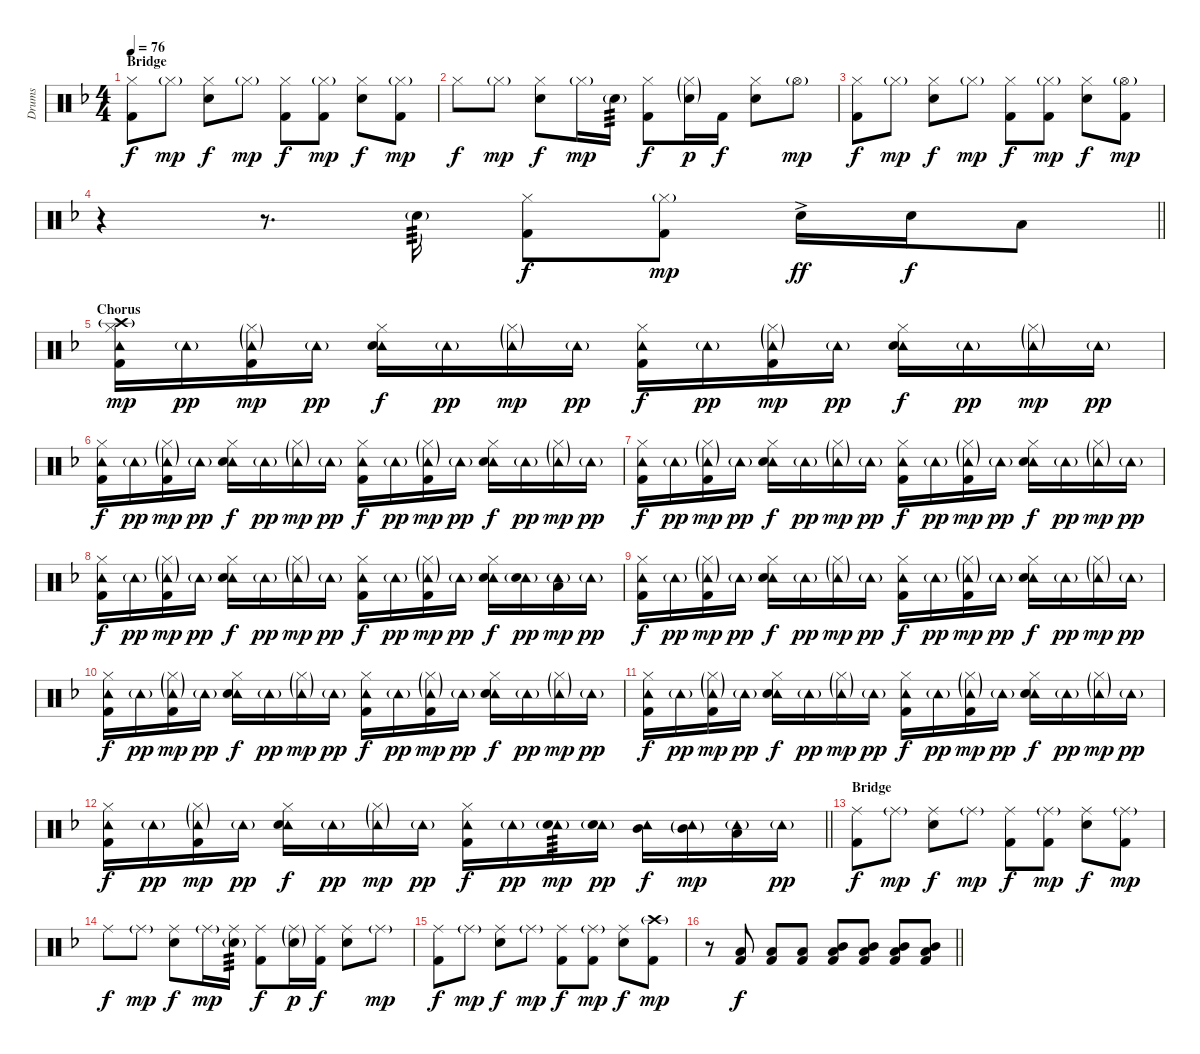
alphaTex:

\track ("Drums" "Drums") {instrument percussion}
\staff {score}
\articulation defaults
\ts (4 4)
\section ("" "Bridge")
\tempo 76
\clef neutral
\ks f
("Hi-Hat (closed)" "Kick (hit) 2").8{dy f} "Hi-Hat (closed)"{g}.8{dy mp} ("Hi-Hat (closed)" "Snare (hit) 2").8{dy f} "Hi-Hat (closed)"{g}.8{dy mp} ("Hi-Hat (closed)" "Kick (hit) 2").8{dy f} ("Hi-Hat (closed)"{g} "Kick (hit) 2").8{dy mp} ("Hi-Hat (closed)" "Snare (hit) 2").8{dy f} ("Hi-Hat (closed)"{g} "Kick (hit) 2").8{dy mp} |
"Hi-Hat (closed)".8{dy f} "Hi-Hat (closed)"{g}.8{dy mp} ("Hi-Hat (closed)" "Snare (hit) 2").8{dy f} "Hi-Hat (closed)"{g}.16{dy mp} "Snare (hit) 2"{g}.16{tp 3} ("Hi-Hat (closed)" "Kick (hit) 2").8{dy f} ("Hi-Hat (closed)"{g} "Snare (hit) 2"{g}).16{dy p} "Kick (hit) 2".16{dy f} ("Hi-Hat (closed)" "Snare (hit) 2").8 "Hi-Hat (open)"{g}.8{dy mp} |
("Hi-Hat (closed)" "Kick (hit) 2").8{dy f} "Hi-Hat (closed)"{g}.8{dy mp} ("Hi-Hat (closed)" "Snare (hit) 2").8{dy f} "Hi-Hat (closed)"{g}.8{dy mp} ("Hi-Hat (closed)" "Kick (hit) 2").8{dy f} ("Hi-Hat (closed)"{g} "Kick (hit) 2").8{dy mp} ("Hi-Hat (closed)" "Snare (hit) 2").8{dy f} ("Hi-Hat (open)"{g} "Kick (hit) 2").8{dy mp} |
\barLineRight lightlight
r.4 r.8{d} "Snare (hit) 2"{g}.16{tp 3} ("Hi-Hat (closed)" "Kick (hit) 2").8{dy f} ("Hi-Hat (closed)"{g} "Kick (hit) 2").8{dy mp} "Snare (hit) 2"{ac}.16{dy ff} "Snare (hit) 2".16{dy f} "Low Tom (hit)".8 |
\section ("" "Chorus")
("Hi-Hat (closed)" "Tambourine (hit)" "Crash high (hit)"{g} "Kick (hit) 2").16{dy mp} "Tambourine (hit)"{g}.16{dy pp} ("Hi-Hat (closed)"{g} "Tambourine (hit)"{g} "Kick (hit) 2").16{dy mp} "Tambourine (hit)"{g}.16{dy pp} ("Hi-Hat (closed)" "Tambourine (hit)" "Snare (hit) 2").16{dy f} "Tambourine (hit)"{g}.16{dy pp} ("Hi-Hat (closed)"{g} "Tambourine (hit)"{g}).16{dy mp} "Tambourine (hit)"{g}.16{dy pp} ("Hi-Hat (closed)" "Tambourine (hit)" "Kick (hit) 2").16{dy f} "Tambourine (hit)"{g}.16{dy pp} ("Hi-Hat (closed)"{g} "Tambourine (hit)"{g} "Kick (hit) 2").16{dy mp} "Tambourine (hit)"{g}.16{dy pp} ("Hi-Hat (closed)" "Tambourine (hit)" "Snare (hit) 2").16{dy f} "Tambourine (hit)"{g}.16{dy pp} ("Hi-Hat (closed)"{g} "Tambourine (hit)"{g}).16{dy mp} "Tambourine (hit)"{g}.16{dy pp} |
("Hi-Hat (closed)" "Tambourine (hit)" "Kick (hit) 2").16{dy f} "Tambourine (hit)"{g}.16{dy pp} ("Hi-Hat (closed)"{g} "Tambourine (hit)"{g} "Kick (hit) 2").16{dy mp} "Tambourine (hit)"{g}.16{dy pp} ("Hi-Hat (closed)" "Tambourine (hit)" "Snare (hit) 2").16{dy f} "Tambourine (hit)"{g}.16{dy pp} ("Hi-Hat (closed)"{g} "Tambourine (hit)"{g}).16{dy mp} "Tambourine (hit)"{g}.16{dy pp} ("Hi-Hat (closed)" "Tambourine (hit)" "Kick (hit) 2").16{dy f} "Tambourine (hit)"{g}.16{dy pp} ("Hi-Hat (closed)"{g} "Tambourine (hit)"{g} "Kick (hit) 2").16{dy mp} "Tambourine (hit)"{g}.16{dy pp} ("Hi-Hat (closed)" "Tambourine (hit)" "Snare (hit) 2").16{dy f} "Tambourine (hit)"{g}.16{dy pp} ("Hi-Hat (closed)"{g} "Tambourine (hit)"{g}).16{dy mp} "Tambourine (hit)"{g}.16{dy pp} |
("Hi-Hat (closed)" "Tambourine (hit)" "Kick (hit) 2").16{dy f} "Tambourine (hit)"{g}.16{dy pp} ("Hi-Hat (closed)"{g} "Tambourine (hit)"{g} "Kick (hit) 2").16{dy mp} "Tambourine (hit)"{g}.16{dy pp} ("Hi-Hat (closed)" "Tambourine (hit)" "Snare (hit) 2").16{dy f} "Tambourine (hit)"{g}.16{dy pp} ("Hi-Hat (closed)"{g} "Tambourine (hit)"{g}).16{dy mp} "Tambourine (hit)"{g}.16{dy pp} ("Hi-Hat (closed)" "Tambourine (hit)" "Kick (hit) 2").16{dy f} "Tambourine (hit)"{g}.16{dy pp} ("Hi-Hat (closed)"{g} "Tambourine (hit)"{g} "Kick (hit) 2").16{dy mp} "Tambourine (hit)"{g}.16{dy pp} ("Hi-Hat (closed)" "Tambourine (hit)" "Snare (hit) 2").16{dy f} "Tambourine (hit)"{g}.16{dy pp} ("Hi-Hat (closed)"{g} "Tambourine (hit)"{g}).16{dy mp} "Tambourine (hit)"{g}.16{dy pp} |
("Hi-Hat (closed)" "Tambourine (hit)" "Kick (hit) 2").16{dy f} "Tambourine (hit)"{g}.16{dy pp} ("Hi-Hat (closed)"{g} "Tambourine (hit)"{g} "Kick (hit) 2").16{dy mp} "Tambourine (hit)"{g}.16{dy pp} ("Hi-Hat (closed)" "Tambourine (hit)" "Snare (hit) 2").16{dy f} "Tambourine (hit)"{g}.16{dy pp} ("Hi-Hat (closed)"{g} "Tambourine (hit)"{g}).16{dy mp} "Tambourine (hit)"{g}.16{dy pp} ("Hi-Hat (closed)" "Tambourine (hit)" "Kick (hit) 2").16{dy f} "Tambourine (hit)"{g}.16{dy pp} ("Hi-Hat (closed)"{g} "Tambourine (hit)"{g} "Kick (hit) 2").16{dy mp} "Tambourine (hit)"{g}.16{dy pp} ("Hi-Hat (closed)" "Tambourine (hit)" "Snare (hit) 2").16{dy f} ("Tambourine (hit)"{g} "Snare (hit) 2").16{dy pp} ("Tambourine (hit)"{g} "Low Tom (hit)").16{dy mp} "Tambourine (hit)"{g}.16{dy pp} |
("Hi-Hat (closed)" "Tambourine (hit)" "Kick (hit) 2").16{dy f} "Tambourine (hit)"{g}.16{dy pp} ("Hi-Hat (closed)"{g} "Tambourine (hit)"{g} "Kick (hit) 2").16{dy mp} "Tambourine (hit)"{g}.16{dy pp} ("Hi-Hat (closed)" "Tambourine (hit)" "Snare (hit) 2").16{dy f} "Tambourine (hit)"{g}.16{dy pp} ("Hi-Hat (closed)"{g} "Tambourine (hit)"{g}).16{dy mp} "Tambourine (hit)"{g}.16{dy pp} ("Hi-Hat (closed)" "Tambourine (hit)" "Kick (hit) 2").16{dy f} "Tambourine (hit)"{g}.16{dy pp} ("Hi-Hat (closed)"{g} "Tambourine (hit)"{g} "Kick (hit) 2").16{dy mp} "Tambourine (hit)"{g}.16{dy pp} ("Hi-Hat (closed)" "Tambourine (hit)" "Snare (hit) 2").16{dy f} "Tambourine (hit)"{g}.16{dy pp} ("Hi-Hat (closed)"{g} "Tambourine (hit)"{g}).16{dy mp} "Tambourine (hit)"{g}.16{dy pp} |
("Hi-Hat (closed)" "Tambourine (hit)" "Kick (hit) 2").16{dy f} "Tambourine (hit)"{g}.16{dy pp} ("Hi-Hat (closed)"{g} "Tambourine (hit)"{g} "Kick (hit) 2").16{dy mp} "Tambourine (hit)"{g}.16{dy pp} ("Hi-Hat (closed)" "Tambourine (hit)" "Snare (hit) 2").16{dy f} "Tambourine (hit)"{g}.16{dy pp} ("Hi-Hat (closed)"{g} "Tambourine (hit)"{g}).16{dy mp} "Tambourine (hit)"{g}.16{dy pp} ("Hi-Hat (closed)" "Tambourine (hit)" "Kick (hit) 2").16{dy f} "Tambourine (hit)"{g}.16{dy pp} ("Hi-Hat (closed)"{g} "Tambourine (hit)"{g} "Kick (hit) 2").16{dy mp} "Tambourine (hit)"{g}.16{dy pp} ("Hi-Hat (closed)" "Tambourine (hit)" "Snare (hit) 2").16{dy f} "Tambourine (hit)"{g}.16{dy pp} ("Hi-Hat (closed)"{g} "Tambourine (hit)"{g}).16{dy mp} "Tambourine (hit)"{g}.16{dy pp} |
("Hi-Hat (closed)" "Tambourine (hit)" "Kick (hit) 2").16{dy f} "Tambourine (hit)"{g}.16{dy pp} ("Hi-Hat (closed)"{g} "Tambourine (hit)"{g} "Kick (hit) 2").16{dy mp} "Tambourine (hit)"{g}.16{dy pp} ("Hi-Hat (closed)" "Tambourine (hit)" "Snare (hit) 2").16{dy f} "Tambourine (hit)"{g}.16{dy pp} ("Hi-Hat (closed)"{g} "Tambourine (hit)"{g}).16{dy mp} "Tambourine (hit)"{g}.16{dy pp} ("Hi-Hat (closed)" "Tambourine (hit)" "Kick (hit) 2").16{dy f} "Tambourine (hit)"{g}.16{dy pp} ("Hi-Hat (closed)"{g} "Tambourine (hit)"{g} "Kick (hit) 2").16{dy mp} "Tambourine (hit)"{g}.16{dy pp} ("Hi-Hat (closed)" "Tambourine (hit)" "Snare (hit) 2").16{dy f} "Tambourine (hit)"{g}.16{dy pp} ("Hi-Hat (closed)"{g} "Tambourine (hit)"{g}).16{dy mp} "Tambourine (hit)"{g}.16{dy pp} |
\barLineRight lightlight
("Hi-Hat (closed)" "Tambourine (hit)" "Kick (hit) 2").16{dy f} "Tambourine (hit)"{g}.16{dy pp} ("Hi-Hat (closed)"{g} "Tambourine (hit)"{g} "Kick (hit) 2").16{dy mp} "Tambourine (hit)"{g}.16{dy pp} ("Hi-Hat (closed)" "Tambourine (hit)" "Snare (hit) 2").16{dy f} "Tambourine (hit)"{g}.16{dy pp} ("Hi-Hat (closed)"{g} "Tambourine (hit)"{g}).16{dy mp} "Tambourine (hit)"{g}.16{dy pp} ("Hi-Hat (closed)" "Tambourine (hit)" "Kick (hit) 2").16{dy f} "Tambourine (hit)"{g}.16{dy pp} ("Tambourine (hit)"{g} "Snare (hit) 2"{g}).16{tp 3 dy mp} ("Tambourine (hit)"{g} "Snare (hit) 2").16{dy pp} ("Tambourine (hit)" "Mid Tom (hit)").16{dy f} ("Tambourine (hit)"{g} "Mid Tom (hit)"{g}).16{dy mp} ("Tambourine (hit)"{g} "Low Tom (hit)").16 "Tambourine (hit)"{g}.16{dy pp} |
\section ("" "Bridge")
("Ride (middle)" "Kick (hit) 2").8{dy f} "Ride (middle)"{g}.8{dy mp} ("Ride (middle)" "Snare (hit) 2").8{dy f} "Ride (middle)"{g}.8{dy mp} ("Ride (middle)" "Kick (hit) 2").8{dy f} ("Ride (middle)"{g} "Kick (hit) 2").8{dy mp} ("Ride (middle)" "Snare (hit) 2").8{dy f} ("Ride (middle)"{g} "Kick (hit) 2").8{dy mp} |
"Ride (middle)".8{dy f} "Ride (middle)"{g}.8{dy mp} ("Ride (middle)" "Snare (hit) 2").8{dy f} "Ride (middle)"{g}.16{dy mp} ("Ride (middle)" "Snare (hit) 2"{g}).16{tp 3} ("Ride (middle)" "Kick (hit) 2").8{dy f} ("Ride (middle)"{g} "Snare (hit) 2"{g}).16{dy p} ("Ride (middle)" "Kick (hit) 2").16{dy f} ("Ride (middle)" "Snare (hit) 2").8 "Ride (middle)"{g}.8{dy mp} |
("Ride (middle)" "Kick (hit) 2").8{dy f} "Ride (middle)"{g}.8{dy mp} ("Ride (middle)" "Snare (hit) 2").8{dy f} "Ride (middle)"{g}.8{dy mp} ("Ride (middle)" "Kick (hit) 2").8{dy f} ("Ride (middle)"{g} "Kick (hit) 2").8{dy mp} ("Ride (middle)" "Snare (hit) 2").8{dy f} ("Crash high (hit)"{g} "Kick (hit) 2").8{dy mp} |
\barLineRight lightlight
r.8 ("Low Tom (hit)" "Kick (hit) 2").8{dy f} ("Low Tom (hit)" "Kick (hit) 2").8 ("Low Tom (hit)" "Kick (hit) 2").8 ("Mid Tom (hit)" "Low Tom (hit)" "Kick (hit) 2").8 ("Mid Tom (hit)" "Low Tom (hit)" "Kick (hit) 2").8 ("Mid Tom (hit)" "Low Tom (hit)" "Kick (hit) 2").8 ("Mid Tom (hit)" "Low Tom (hit)" "Kick (hit) 2").8
